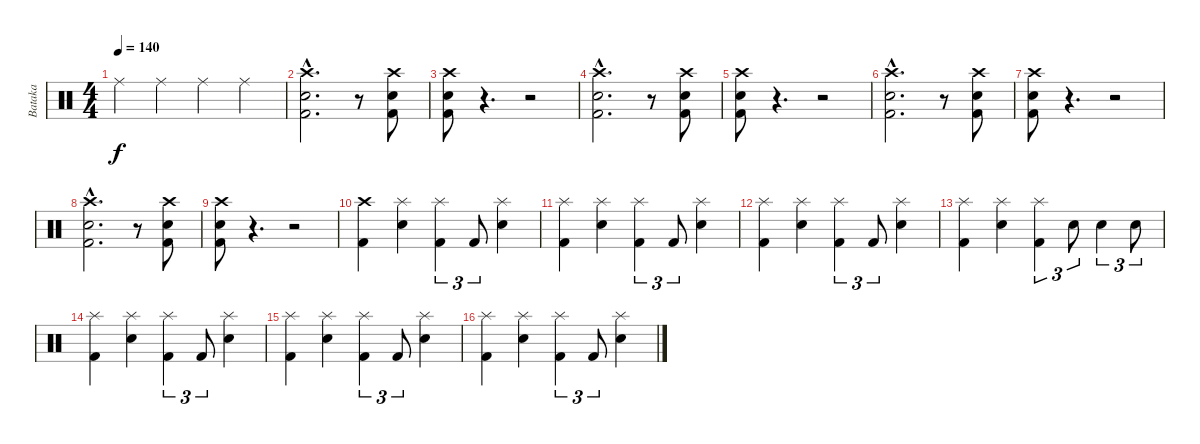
\track ("Bataka" "Bataka") {instrument percussion}
\staff {score}
\articulation defaults
\ts (4 4)
\tempo 140
\clef neutral
\ks c "Ride (middle)".4{dy f} "Ride (middle)".4 "Ride (middle)".4 "Ride (middle)".4
|
("Crash high (hit)"{hac} "Electric Snare (hit)"{hac} "Kick (hit) 2"{hac}).2{d} r.8 ("Crash high (hit)" "Electric Snare (hit)" "Kick (hit) 2").8 |
("Crash high (hit)" "Electric Snare (hit)" "Kick (hit) 2").8 r.4{d volume 0} r.2 |
("Crash high (hit)"{hac} "Electric Snare (hit)"{hac} "Kick (hit) 2"{hac}).2{d volume 13} r.8 ("Crash high (hit)" "Electric Snare (hit)" "Kick (hit) 2").8 |
("Crash high (hit)" "Electric Snare (hit)" "Kick (hit) 2").8 r.4{d volume 0} r.2 |
("Crash high (hit)"{hac} "Electric Snare (hit)"{hac} "Kick (hit) 2"{hac}).2{d volume 13} r.8 ("Crash high (hit)" "Electric Snare (hit)" "Kick (hit) 2").8 |
("Crash high (hit)" "Electric Snare (hit)" "Kick (hit) 2").8 r.4{d volume 0} r.2 |
("Crash high (hit)"{hac} "Electric Snare (hit)"{hac} "Kick (hit) 2"{hac}).2{d volume 13} r.8 ("Crash high (hit)" "Electric Snare (hit)" "Kick (hit) 2").8 |
("Crash high (hit)" "Electric Snare (hit)" "Kick (hit) 2").8 r.4{d volume 0} r.2 |
("Crash high (hit)" "Kick (hit) 2").4{volume 13} ("Splash (hit)" "Electric Snare (hit)").4 ("Splash (hit)" "Kick (hit) 2").4{tu (3 2)} "Kick (hit) 2".8{tu (3 2)} ("Splash (hit)" "Electric Snare (hit)").4 |
("Splash (hit)" "Kick (hit) 2").4 ("Splash (hit)" "Electric Snare (hit)").4 ("Splash (hit)" "Kick (hit) 2").4{tu (3 2)} "Kick (hit) 2".8{tu (3 2)} ("Splash (hit)" "Electric Snare (hit)").4 |
("Splash (hit)" "Kick (hit) 2").4 ("Splash (hit)" "Electric Snare (hit)").4 ("Splash (hit)" "Kick (hit) 2").4{tu (3 2)} "Kick (hit) 2".8{tu (3 2)} ("Splash (hit)" "Electric Snare (hit)").4 |
("Splash (hit)" "Kick (hit) 2").4 ("Splash (hit)" "Electric Snare (hit)").4 ("Splash (hit)" "Kick (hit) 2").4{tu (3 2)} "Electric Snare (hit)".8{tu (3 2)} "Electric Snare (hit)".4{tu (3 2)} "Electric Snare (hit)".8{tu (3 2)} |
("Splash (hit)" "Kick (hit) 2").4 ("Splash (hit)" "Electric Snare (hit)").4 ("Splash (hit)" "Kick (hit) 2").4{tu (3 2)} "Kick (hit) 2".8{tu (3 2)} ("Splash (hit)" "Electric Snare (hit)").4 |
("Splash (hit)" "Kick (hit) 2").4 ("Splash (hit)" "Electric Snare (hit)").4 ("Splash (hit)" "Kick (hit) 2").4{tu (3 2)} "Kick (hit) 2".8{tu (3 2)} ("Splash (hit)" "Electric Snare (hit)").4 |
("Splash (hit)" "Kick (hit) 2").4 ("Splash (hit)" "Electric Snare (hit)").4 ("Splash (hit)" "Kick (hit) 2").4{tu (3 2)} "Kick (hit) 2".8{tu (3 2)} ("Splash (hit)" "Electric Snare (hit)").4
